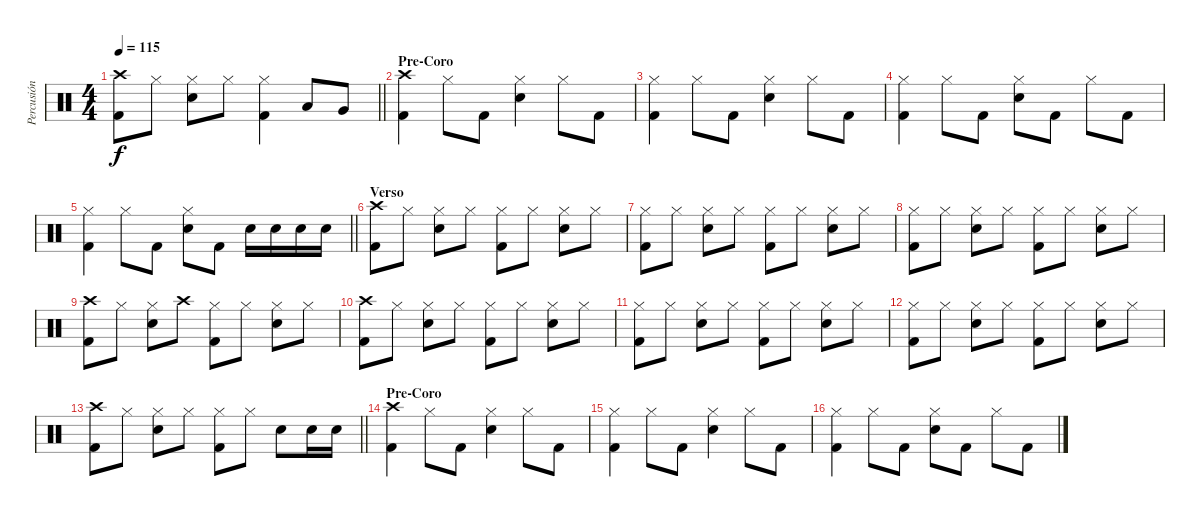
\track ("Percusión" "Percusión") {instrument percussion}
\staff {score}
\articulation defaults
\ts (4 4)
\tempo 115
\clef neutral
\barLineRight lightlight
\ks c
("Crash high (hit)" "Kick (hit) 2").8{dy f} "Hi-Hat (closed)".8 ("Hi-Hat (closed)" "Snare (hit) 2").8 "Hi-Hat (closed)".8 ("Hi-Hat (closed)" "Kick (hit) 2").4 "Low Tom (hit)".8 "Very Low Tom (hit)".8 |
\section ("" "Pre-Coro")
("Crash high (hit)" "Kick (hit) 2").4 "Hi-Hat (closed)".8 "Kick (hit) 2".8 ("Hi-Hat (closed)" "Snare (hit) 2").4 "Hi-Hat (closed)".8 "Kick (hit) 2".8 |
("Hi-Hat (closed)" "Kick (hit) 2").4 "Hi-Hat (closed)".8 "Kick (hit) 2".8 ("Hi-Hat (closed)" "Snare (hit) 2").4 "Hi-Hat (closed)".8 "Kick (hit) 2".8 |
("Hi-Hat (closed)" "Kick (hit) 2").4 "Hi-Hat (closed)".8 "Kick (hit) 2".8 ("Hi-Hat (closed)" "Snare (hit) 2").8 "Kick (hit) 2".8 "Hi-Hat (closed)".8 "Kick (hit) 2".8 |
\barLineRight lightlight
("Hi-Hat (closed)" "Kick (hit) 2").4 "Hi-Hat (closed)".8 "Kick (hit) 2".8 ("Hi-Hat (closed)" "Snare (hit) 2").8 "Kick (hit) 2".8 "Snare (hit) 2".16 "Snare (hit) 2".16 "Snare (hit) 2".16 "Snare (hit) 2".16 |
\section ("" "Verso")
("Crash high (hit)" "Kick (hit) 2").8 "Hi-Hat (closed)".8 ("Hi-Hat (closed)" "Snare (hit) 2").8 "Hi-Hat (closed)".8 ("Hi-Hat (closed)" "Kick (hit) 2").8 "Hi-Hat (closed)".8 ("Hi-Hat (closed)" "Snare (hit) 2").8 "Hi-Hat (closed)".8 |
("Hi-Hat (closed)" "Kick (hit) 2").8 "Hi-Hat (closed)".8 ("Hi-Hat (closed)" "Snare (hit) 2").8 "Hi-Hat (closed)".8 ("Hi-Hat (closed)" "Kick (hit) 2").8 "Hi-Hat (closed)".8 ("Hi-Hat (closed)" "Snare (hit) 2").8 "Hi-Hat (closed)".8 |
("Hi-Hat (closed)" "Kick (hit) 2").8 "Hi-Hat (closed)".8 ("Hi-Hat (closed)" "Snare (hit) 2").8 "Hi-Hat (closed)".8 ("Hi-Hat (closed)" "Kick (hit) 2").8 "Hi-Hat (closed)".8 ("Hi-Hat (closed)" "Snare (hit) 2").8 "Hi-Hat (closed)".8 |
("Crash high (hit)" "Kick (hit) 2").8 "Hi-Hat (closed)".8 ("Hi-Hat (closed)" "Snare (hit) 2").8 "Crash high (hit)".8 ("Hi-Hat (closed)" "Kick (hit) 2").8 "Hi-Hat (closed)".8 ("Hi-Hat (closed)" "Snare (hit) 2").8 "Hi-Hat (closed)".8 |
("Crash high (hit)" "Kick (hit) 2").8 "Hi-Hat (closed)".8 ("Hi-Hat (closed)" "Snare (hit) 2").8 "Hi-Hat (closed)".8 ("Hi-Hat (closed)" "Kick (hit) 2").8 "Hi-Hat (closed)".8 ("Hi-Hat (closed)" "Snare (hit) 2").8 "Hi-Hat (closed)".8 |
("Hi-Hat (closed)" "Kick (hit) 2").8 "Hi-Hat (closed)".8 ("Hi-Hat (closed)" "Snare (hit) 2").8 "Hi-Hat (closed)".8 ("Hi-Hat (closed)" "Kick (hit) 2").8 "Hi-Hat (closed)".8 ("Hi-Hat (closed)" "Snare (hit) 2").8 "Hi-Hat (closed)".8 |
("Hi-Hat (closed)" "Kick (hit) 2").8 "Hi-Hat (closed)".8 ("Hi-Hat (closed)" "Snare (hit) 2").8 "Hi-Hat (closed)".8 ("Hi-Hat (closed)" "Kick (hit) 2").8 "Hi-Hat (closed)".8 ("Hi-Hat (closed)" "Snare (hit) 2").8 "Hi-Hat (closed)".8 |
\barLineRight lightlight
("Crash high (hit)" "Kick (hit) 2").8 "Hi-Hat (closed)".8 ("Hi-Hat (closed)" "Snare (hit) 2").8 "Hi-Hat (closed)".8 ("Hi-Hat (closed)" "Kick (hit) 2").8 "Hi-Hat (closed)".8 "Snare (hit) 2".8 "Snare (hit) 2".16 "Snare (hit) 2".16 |
\section ("" "Pre-Coro")
("Crash high (hit)" "Kick (hit) 2").4 "Hi-Hat (closed)".8 "Kick (hit) 2".8 ("Hi-Hat (closed)" "Snare (hit) 2").4 "Hi-Hat (closed)".8 "Kick (hit) 2".8 |
("Hi-Hat (closed)" "Kick (hit) 2").4 "Hi-Hat (closed)".8 "Kick (hit) 2".8 ("Hi-Hat (closed)" "Snare (hit) 2").4 "Hi-Hat (closed)".8 "Kick (hit) 2".8 |
("Hi-Hat (closed)" "Kick (hit) 2").4 "Hi-Hat (closed)".8 "Kick (hit) 2".8 ("Hi-Hat (closed)" "Snare (hit) 2").8 "Kick (hit) 2".8 "Hi-Hat (closed)".8 "Kick (hit) 2".8
